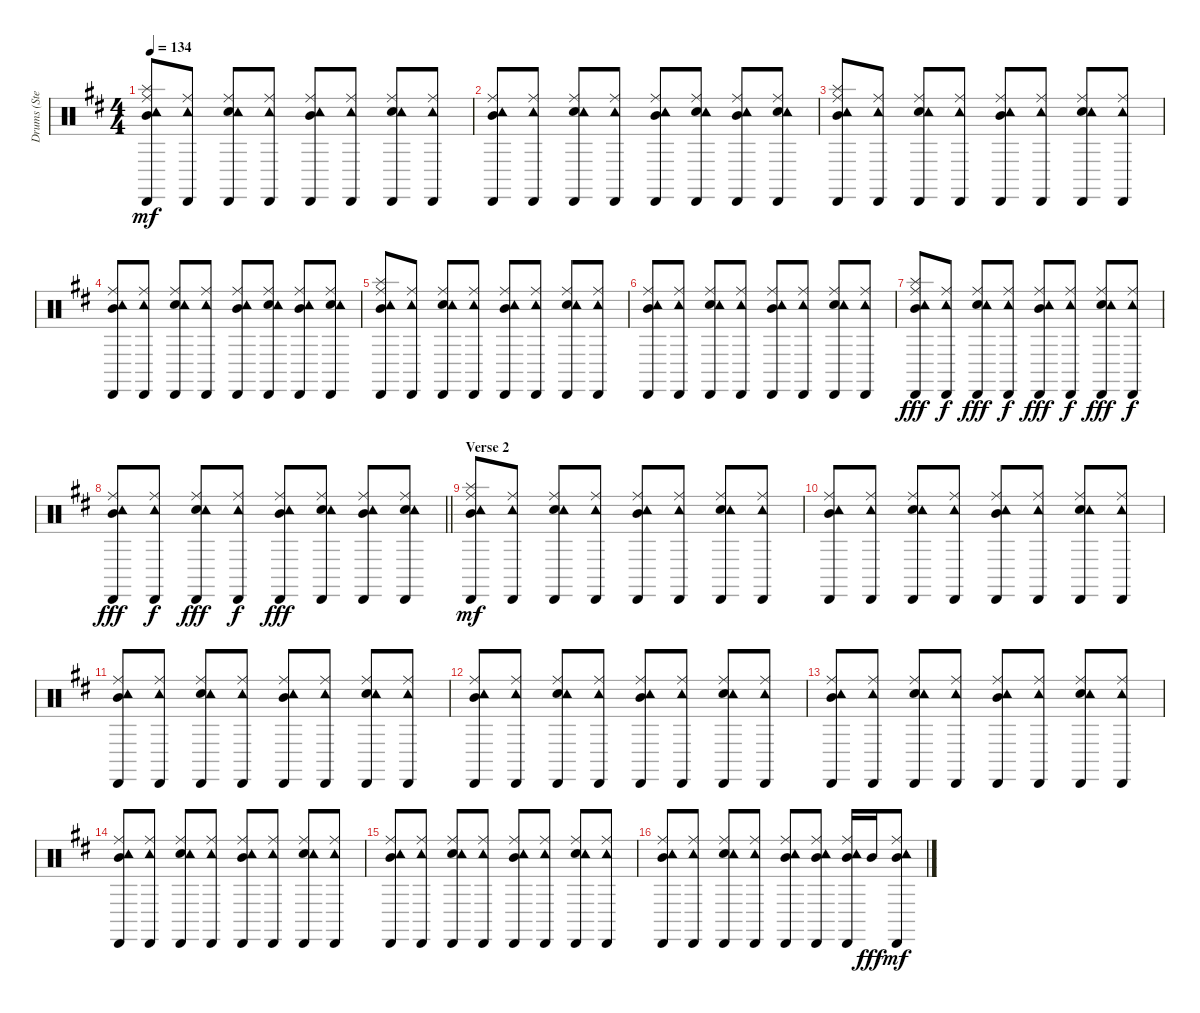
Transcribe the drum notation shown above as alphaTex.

\track ("Drums (Steven)" "Drums (Ste") {instrument percussion}
\staff {score}
\articulation defaults
\ts (4 4)
\tempo 134
\clef neutral
\ks d
("Mid Tom (hit)" "Splash (hit)" "Ride (middle)" "Tambourine (hit)" "Cabasa (hit)").8{dy mf} ("Ride (middle)" "Tambourine (hit)" "Cabasa (hit)").8 ("Electric Snare (hit)" "Ride (middle)" "Tambourine (hit)" "Cabasa (hit)").8 ("Ride (middle)" "Tambourine (hit)" "Cabasa (hit)").8 ("Mid Tom (hit)" "Ride (middle)" "Tambourine (hit)" "Cabasa (hit)").8 ("Ride (middle)" "Tambourine (hit)" "Cabasa (hit)").8 ("Electric Snare (hit)" "Ride (middle)" "Tambourine (hit)" "Cabasa (hit)").8 ("Ride (middle)" "Tambourine (hit)" "Cabasa (hit)").8 |
("Mid Tom (hit)" "Ride (middle)" "Tambourine (hit)" "Cabasa (hit)").8 ("Ride (middle)" "Tambourine (hit)" "Cabasa (hit)").8 ("Electric Snare (hit)" "Ride (middle)" "Tambourine (hit)" "Cabasa (hit)").8 ("Ride (middle)" "Tambourine (hit)" "Cabasa (hit)").8 ("Mid Tom (hit)" "Ride (middle)" "Tambourine (hit)" "Cabasa (hit)").8 ("Electric Snare (hit)" "Ride (middle)" "Tambourine (hit)" "Cabasa (hit)").8 ("Mid Tom (hit)" "Ride (middle)" "Tambourine (hit)" "Cabasa (hit)").8 ("Electric Snare (hit)" "Ride (middle)" "Tambourine (hit)" "Cabasa (hit)").8 |
("Mid Tom (hit)" "Splash (hit)" "Ride (middle)" "Tambourine (hit)" "Cabasa (hit)").8 ("Ride (middle)" "Tambourine (hit)" "Cabasa (hit)").8 ("Electric Snare (hit)" "Ride (middle)" "Tambourine (hit)" "Cabasa (hit)").8 ("Ride (middle)" "Tambourine (hit)" "Cabasa (hit)").8 ("Mid Tom (hit)" "Ride (middle)" "Tambourine (hit)" "Cabasa (hit)").8 ("Ride (middle)" "Tambourine (hit)" "Cabasa (hit)").8 ("Electric Snare (hit)" "Ride (middle)" "Tambourine (hit)" "Cabasa (hit)").8 ("Ride (middle)" "Tambourine (hit)" "Cabasa (hit)").8 |
("Mid Tom (hit)" "Ride (middle)" "Tambourine (hit)" "Cabasa (hit)").8 ("Ride (middle)" "Tambourine (hit)" "Cabasa (hit)").8 ("Electric Snare (hit)" "Ride (middle)" "Tambourine (hit)" "Cabasa (hit)").8 ("Ride (middle)" "Tambourine (hit)" "Cabasa (hit)").8 ("Mid Tom (hit)" "Ride (middle)" "Tambourine (hit)" "Cabasa (hit)").8 ("Electric Snare (hit)" "Ride (middle)" "Tambourine (hit)" "Cabasa (hit)").8 ("Mid Tom (hit)" "Ride (middle)" "Tambourine (hit)" "Cabasa (hit)").8 ("Electric Snare (hit)" "Ride (middle)" "Tambourine (hit)" "Cabasa (hit)").8 |
("Mid Tom (hit)" "Splash (hit)" "Ride (middle)" "Tambourine (hit)" "Cabasa (hit)").8 ("Ride (middle)" "Tambourine (hit)" "Cabasa (hit)").8 ("Electric Snare (hit)" "Ride (middle)" "Tambourine (hit)" "Cabasa (hit)").8 ("Ride (middle)" "Tambourine (hit)" "Cabasa (hit)").8 ("Mid Tom (hit)" "Ride (middle)" "Tambourine (hit)" "Cabasa (hit)").8 ("Ride (middle)" "Tambourine (hit)" "Cabasa (hit)").8 ("Electric Snare (hit)" "Ride (middle)" "Tambourine (hit)" "Cabasa (hit)").8 ("Ride (middle)" "Tambourine (hit)" "Cabasa (hit)").8 |
("Mid Tom (hit)" "Ride (middle)" "Tambourine (hit)" "Cabasa (hit)").8 ("Ride (middle)" "Tambourine (hit)" "Cabasa (hit)").8 ("Electric Snare (hit)" "Ride (middle)" "Tambourine (hit)" "Cabasa (hit)").8 ("Ride (middle)" "Tambourine (hit)" "Cabasa (hit)").8 ("Mid Tom (hit)" "Ride (middle)" "Tambourine (hit)" "Cabasa (hit)").8 ("Ride (middle)" "Tambourine (hit)" "Cabasa (hit)").8 ("Electric Snare (hit)" "Ride (middle)" "Tambourine (hit)" "Cabasa (hit)").8 ("Ride (middle)" "Tambourine (hit)" "Cabasa (hit)").8 |
("Mid Tom (hit)" "Splash (hit)" "Ride (middle)" "Tambourine (hit)" "Cabasa (hit)").8{dy fff} ("Ride (middle)" "Tambourine (hit)" "Cabasa (hit)").8{dy f} ("Electric Snare (hit)" "Ride (middle)" "Tambourine (hit)" "Cabasa (hit)").8{dy fff} ("Ride (middle)" "Tambourine (hit)" "Cabasa (hit)").8{dy f} ("Mid Tom (hit)" "Ride (middle)" "Tambourine (hit)" "Cabasa (hit)").8{dy fff} ("Ride (middle)" "Tambourine (hit)" "Cabasa (hit)").8{dy f} ("Electric Snare (hit)" "Ride (middle)" "Tambourine (hit)" "Cabasa (hit)").8{dy fff} ("Ride (middle)" "Tambourine (hit)" "Cabasa (hit)").8{dy f} |
\barLineRight lightlight
("Mid Tom (hit)" "Ride (middle)" "Tambourine (hit)" "Cabasa (hit)").8{dy fff} ("Ride (middle)" "Tambourine (hit)" "Cabasa (hit)").8{dy f} ("Electric Snare (hit)" "Ride (middle)" "Tambourine (hit)" "Cabasa (hit)").8{dy fff} ("Ride (middle)" "Tambourine (hit)" "Cabasa (hit)").8{dy f} ("Mid Tom (hit)" "Ride (middle)" "Tambourine (hit)" "Cabasa (hit)").8{dy fff} ("Electric Snare (hit)" "Ride (middle)" "Tambourine (hit)" "Cabasa (hit)").8 ("Mid Tom (hit)" "Ride (middle)" "Tambourine (hit)" "Cabasa (hit)").8 ("Electric Snare (hit)" "Ride (middle)" "Tambourine (hit)" "Cabasa (hit)").8 |
\section ("" "Verse 2")
("Mid Tom (hit)" "Splash (hit)" "Ride (middle)" "Tambourine (hit)" "Cabasa (hit)").8{dy mf} ("Ride (middle)" "Tambourine (hit)" "Cabasa (hit)").8 ("Electric Snare (hit)" "Ride (middle)" "Tambourine (hit)" "Cabasa (hit)").8 ("Ride (middle)" "Tambourine (hit)" "Cabasa (hit)").8 ("Mid Tom (hit)" "Ride (middle)" "Tambourine (hit)" "Cabasa (hit)").8 ("Ride (middle)" "Tambourine (hit)" "Cabasa (hit)").8 ("Electric Snare (hit)" "Ride (middle)" "Tambourine (hit)" "Cabasa (hit)").8 ("Ride (middle)" "Tambourine (hit)" "Cabasa (hit)").8 |
("Mid Tom (hit)" "Ride (middle)" "Tambourine (hit)" "Cabasa (hit)").8 ("Ride (middle)" "Tambourine (hit)" "Cabasa (hit)").8 ("Electric Snare (hit)" "Ride (middle)" "Tambourine (hit)" "Cabasa (hit)").8 ("Ride (middle)" "Tambourine (hit)" "Cabasa (hit)").8 ("Mid Tom (hit)" "Ride (middle)" "Tambourine (hit)" "Cabasa (hit)").8 ("Ride (middle)" "Tambourine (hit)" "Cabasa (hit)").8 ("Electric Snare (hit)" "Ride (middle)" "Tambourine (hit)" "Cabasa (hit)").8 ("Ride (middle)" "Tambourine (hit)" "Cabasa (hit)").8 |
("Mid Tom (hit)" "Ride (middle)" "Tambourine (hit)" "Cabasa (hit)").8 ("Ride (middle)" "Tambourine (hit)" "Cabasa (hit)").8 ("Electric Snare (hit)" "Ride (middle)" "Tambourine (hit)" "Cabasa (hit)").8 ("Ride (middle)" "Tambourine (hit)" "Cabasa (hit)").8 ("Mid Tom (hit)" "Ride (middle)" "Tambourine (hit)" "Cabasa (hit)").8 ("Ride (middle)" "Tambourine (hit)" "Cabasa (hit)").8 ("Electric Snare (hit)" "Ride (middle)" "Tambourine (hit)" "Cabasa (hit)").8 ("Ride (middle)" "Tambourine (hit)" "Cabasa (hit)").8 |
("Mid Tom (hit)" "Ride (middle)" "Tambourine (hit)" "Cabasa (hit)").8 ("Ride (middle)" "Tambourine (hit)" "Cabasa (hit)").8 ("Electric Snare (hit)" "Ride (middle)" "Tambourine (hit)" "Cabasa (hit)").8 ("Ride (middle)" "Tambourine (hit)" "Cabasa (hit)").8 ("Mid Tom (hit)" "Ride (middle)" "Tambourine (hit)" "Cabasa (hit)").8 ("Ride (middle)" "Tambourine (hit)" "Cabasa (hit)").8 ("Electric Snare (hit)" "Ride (middle)" "Tambourine (hit)" "Cabasa (hit)").8 ("Ride (middle)" "Tambourine (hit)" "Cabasa (hit)").8 |
("Mid Tom (hit)" "Ride (middle)" "Tambourine (hit)" "Cabasa (hit)").8 ("Ride (middle)" "Tambourine (hit)" "Cabasa (hit)").8 ("Electric Snare (hit)" "Ride (middle)" "Tambourine (hit)" "Cabasa (hit)").8 ("Ride (middle)" "Tambourine (hit)" "Cabasa (hit)").8 ("Mid Tom (hit)" "Ride (middle)" "Tambourine (hit)" "Cabasa (hit)").8 ("Ride (middle)" "Tambourine (hit)" "Cabasa (hit)").8 ("Electric Snare (hit)" "Ride (middle)" "Tambourine (hit)" "Cabasa (hit)").8 ("Ride (middle)" "Tambourine (hit)" "Cabasa (hit)").8 |
("Mid Tom (hit)" "Ride (middle)" "Tambourine (hit)" "Cabasa (hit)").8 ("Ride (middle)" "Tambourine (hit)" "Cabasa (hit)").8 ("Electric Snare (hit)" "Ride (middle)" "Tambourine (hit)" "Cabasa (hit)").8 ("Ride (middle)" "Tambourine (hit)" "Cabasa (hit)").8 ("Mid Tom (hit)" "Ride (middle)" "Tambourine (hit)" "Cabasa (hit)").8 ("Ride (middle)" "Tambourine (hit)" "Cabasa (hit)").8 ("Electric Snare (hit)" "Ride (middle)" "Tambourine (hit)" "Cabasa (hit)").8 ("Ride (middle)" "Tambourine (hit)" "Cabasa (hit)").8 |
("Mid Tom (hit)" "Ride (middle)" "Tambourine (hit)" "Cabasa (hit)").8 ("Ride (middle)" "Tambourine (hit)" "Cabasa (hit)").8 ("Electric Snare (hit)" "Ride (middle)" "Tambourine (hit)" "Cabasa (hit)").8 ("Ride (middle)" "Tambourine (hit)" "Cabasa (hit)").8 ("Mid Tom (hit)" "Ride (middle)" "Tambourine (hit)" "Cabasa (hit)").8 ("Ride (middle)" "Tambourine (hit)" "Cabasa (hit)").8 ("Electric Snare (hit)" "Ride (middle)" "Tambourine (hit)" "Cabasa (hit)").8 ("Ride (middle)" "Tambourine (hit)" "Cabasa (hit)").8 |
("Mid Tom (hit)" "Ride (middle)" "Tambourine (hit)" "Cabasa (hit)").8 ("Ride (middle)" "Tambourine (hit)" "Cabasa (hit)").8 ("Electric Snare (hit)" "Ride (middle)" "Tambourine (hit)" "Cabasa (hit)").8 ("Ride (middle)" "Tambourine (hit)" "Cabasa (hit)").8 ("Mid Tom (hit)" "Ride (middle)" "Tambourine (hit)" "Cabasa (hit)").8 ("Mid Tom (hit)" "Ride (middle)" "Tambourine (hit)" "Cabasa (hit)").8 ("Mid Tom (hit)" "Ride (middle)" "Tambourine (hit)" "Cabasa (hit)").16 "Mid Tom (hit)".16{dy fff} ("Mid Tom (hit)" "Ride (middle)" "Tambourine (hit)" "Cabasa (hit)").8{dy mf}
